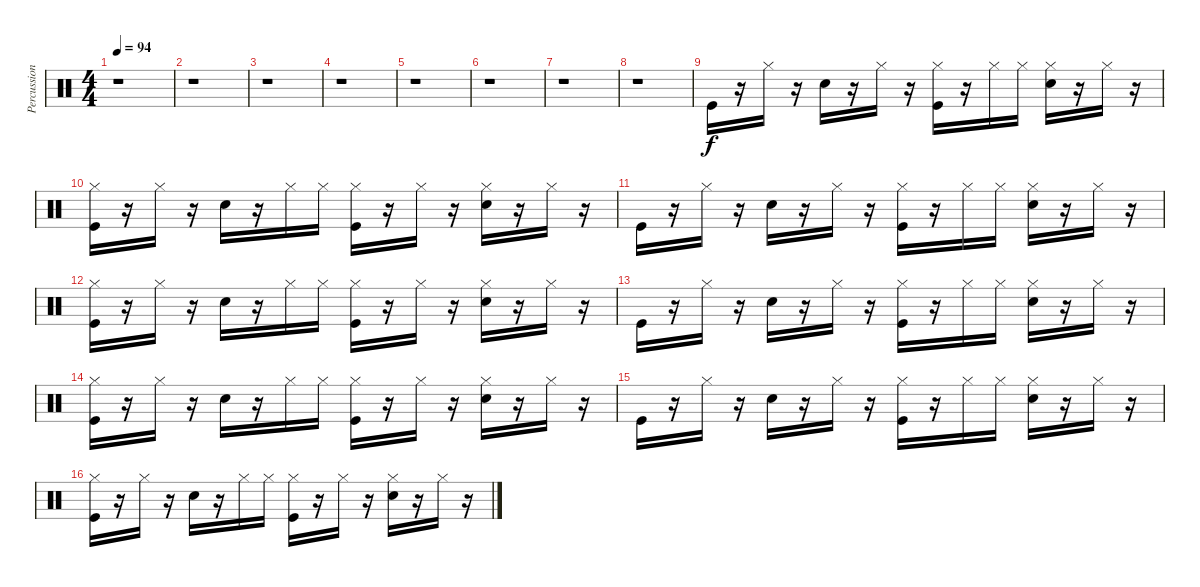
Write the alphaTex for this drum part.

\track ("Percussions/From Midi" "Percussion") {instrument percussion}
\staff {score}
\articulation defaults
\ts (4 4)
\tempo 94
\clef neutral
\ks c
r.1{dy f} |
r.1 |
r.1 |
r.1 |
r.1 |
r.1 |
r.1 |
r.1 |
"Kick (hit)".16 r.16 "Hi-Hat (closed)".16 r.16 "Electric Snare (hit)".16 r.16 "Hi-Hat (closed)".16 r.16 ("Kick (hit)" "Hi-Hat (closed)").16 r.16 "Hi-Hat (closed)".16 "Hi-Hat (closed)".16 ("Electric Snare (hit)" "Hi-Hat (closed)").16 r.16 "Hi-Hat (closed)".16 r.16 |
("Kick (hit)" "Hi-Hat (closed)").16 r.16 "Hi-Hat (closed)".16 r.16 "Electric Snare (hit)".16 r.16 "Hi-Hat (closed)".16 "Hi-Hat (closed)".16 ("Kick (hit)" "Hi-Hat (closed)").16 r.16 "Hi-Hat (closed)".16 r.16 ("Electric Snare (hit)" "Hi-Hat (closed)").16 r.16 "Hi-Hat (closed)".16 r.16 |
"Kick (hit)".16 r.16 "Hi-Hat (closed)".16 r.16 "Electric Snare (hit)".16 r.16 "Hi-Hat (closed)".16 r.16 ("Kick (hit)" "Hi-Hat (closed)").16 r.16 "Hi-Hat (closed)".16 "Hi-Hat (closed)".16 ("Electric Snare (hit)" "Hi-Hat (closed)").16 r.16 "Hi-Hat (closed)".16 r.16 |
("Kick (hit)" "Hi-Hat (closed)").16 r.16 "Hi-Hat (closed)".16 r.16 "Electric Snare (hit)".16 r.16 "Hi-Hat (closed)".16 "Hi-Hat (closed)".16 ("Kick (hit)" "Hi-Hat (closed)").16 r.16 "Hi-Hat (closed)".16 r.16 ("Electric Snare (hit)" "Hi-Hat (closed)").16 r.16 "Hi-Hat (closed)".16 r.16 |
"Kick (hit)".16 r.16 "Hi-Hat (closed)".16 r.16 "Electric Snare (hit)".16 r.16 "Hi-Hat (closed)".16 r.16 ("Kick (hit)" "Hi-Hat (closed)").16 r.16 "Hi-Hat (closed)".16 "Hi-Hat (closed)".16 ("Electric Snare (hit)" "Hi-Hat (closed)").16 r.16 "Hi-Hat (closed)".16 r.16 |
("Kick (hit)" "Hi-Hat (closed)").16 r.16 "Hi-Hat (closed)".16 r.16 "Electric Snare (hit)".16 r.16 "Hi-Hat (closed)".16 "Hi-Hat (closed)".16 ("Kick (hit)" "Hi-Hat (closed)").16 r.16 "Hi-Hat (closed)".16 r.16 ("Electric Snare (hit)" "Hi-Hat (closed)").16 r.16 "Hi-Hat (closed)".16 r.16 |
"Kick (hit)".16 r.16 "Hi-Hat (closed)".16 r.16 "Electric Snare (hit)".16 r.16 "Hi-Hat (closed)".16 r.16 ("Kick (hit)" "Hi-Hat (closed)").16 r.16 "Hi-Hat (closed)".16 "Hi-Hat (closed)".16 ("Electric Snare (hit)" "Hi-Hat (closed)").16 r.16 "Hi-Hat (closed)".16 r.16 |
("Kick (hit)" "Hi-Hat (closed)").16 r.16 "Hi-Hat (closed)".16 r.16 "Electric Snare (hit)".16 r.16 "Hi-Hat (closed)".16 "Hi-Hat (closed)".16 ("Kick (hit)" "Hi-Hat (closed)").16 r.16 "Hi-Hat (closed)".16 r.16 ("Electric Snare (hit)" "Hi-Hat (closed)").16 r.16 "Hi-Hat (closed)".16 r.16
